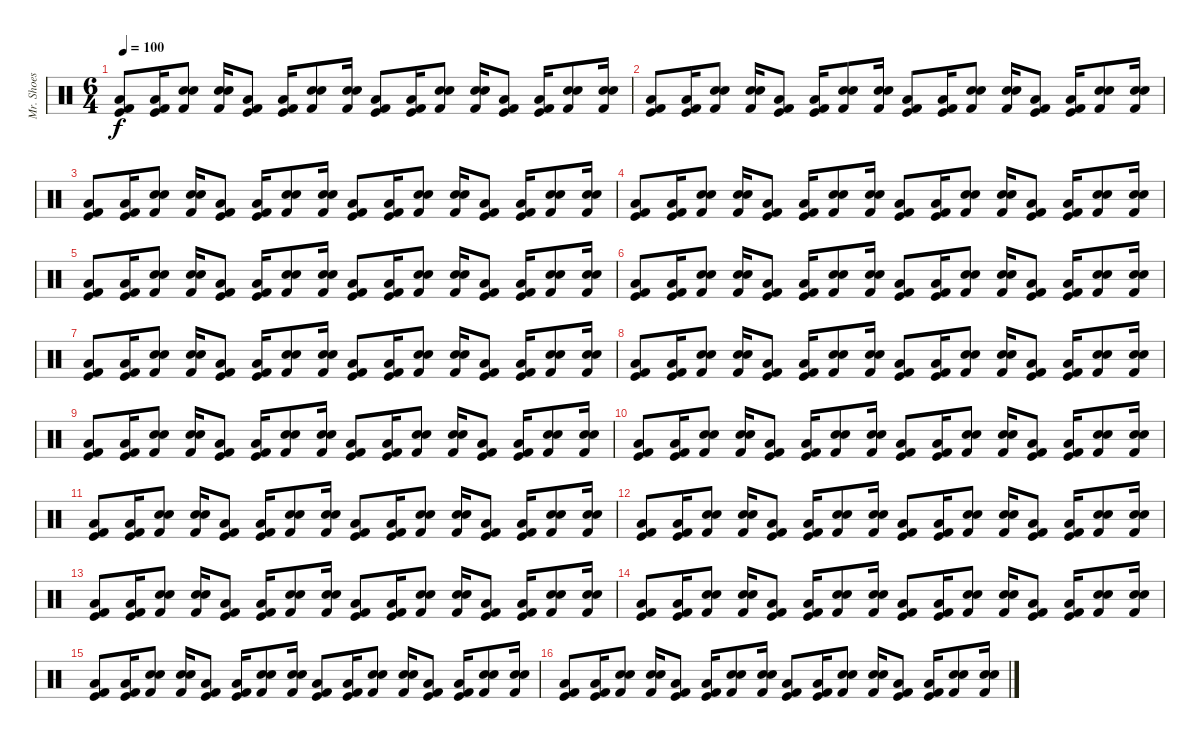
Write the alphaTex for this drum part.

\track ("Mr. Shoes" "Mr. Shoes") {instrument percussion}
\staff {score}
\articulation defaults
\ts (6 4)
\tempo 100
\clef neutral
\ks c
("Kick (hit)" "Low Tom (hit)" "Kick (hit) 2").8{dy f} ("Kick (hit)" "Low Tom (hit)" "Kick (hit) 2").16 ("Snare (hit) 2" "Kick (hit) 2" "Snare (hit) 2").8 ("Snare (hit) 2" "Kick (hit) 2" "Snare (hit) 2").16 ("Kick (hit)" "Low Tom (hit)" "Kick (hit) 2").8 ("Kick (hit)" "Low Tom (hit)" "Kick (hit) 2").16 ("Snare (hit) 2" "Kick (hit) 2" "Snare (hit) 2").8 ("Snare (hit) 2" "Kick (hit) 2" "Snare (hit) 2").16 ("Kick (hit)" "Low Tom (hit)" "Kick (hit) 2").8 ("Kick (hit)" "Low Tom (hit)" "Kick (hit) 2").16 ("Snare (hit) 2" "Kick (hit) 2" "Snare (hit) 2").8 ("Snare (hit) 2" "Kick (hit) 2" "Snare (hit) 2").16 ("Kick (hit)" "Low Tom (hit)" "Kick (hit) 2").8 ("Kick (hit)" "Low Tom (hit)" "Kick (hit) 2").16 ("Snare (hit) 2" "Kick (hit) 2" "Snare (hit) 2").8 ("Snare (hit) 2" "Kick (hit) 2" "Snare (hit) 2").16 |
("Kick (hit)" "Low Tom (hit)" "Kick (hit) 2").8 ("Kick (hit)" "Low Tom (hit)" "Kick (hit) 2").16 ("Snare (hit) 2" "Kick (hit) 2" "Snare (hit) 2").8 ("Snare (hit) 2" "Kick (hit) 2" "Snare (hit) 2").16 ("Kick (hit)" "Low Tom (hit)" "Kick (hit) 2").8 ("Kick (hit)" "Low Tom (hit)" "Kick (hit) 2").16 ("Snare (hit) 2" "Kick (hit) 2" "Snare (hit) 2").8 ("Snare (hit) 2" "Kick (hit) 2" "Snare (hit) 2").16 ("Kick (hit)" "Low Tom (hit)" "Kick (hit) 2").8 ("Kick (hit)" "Low Tom (hit)" "Kick (hit) 2").16 ("Snare (hit) 2" "Kick (hit) 2" "Snare (hit) 2").8 ("Snare (hit) 2" "Kick (hit) 2" "Snare (hit) 2").16 ("Kick (hit)" "Low Tom (hit)" "Kick (hit) 2").8 ("Kick (hit)" "Low Tom (hit)" "Kick (hit) 2").16 ("Snare (hit) 2" "Kick (hit) 2" "Snare (hit) 2").8 ("Snare (hit) 2" "Kick (hit) 2" "Snare (hit) 2").16 |
("Kick (hit)" "Low Tom (hit)" "Kick (hit) 2").8 ("Kick (hit)" "Low Tom (hit)" "Kick (hit) 2").16 ("Snare (hit) 2" "Kick (hit) 2" "Snare (hit) 2").8 ("Snare (hit) 2" "Kick (hit) 2" "Snare (hit) 2").16 ("Kick (hit)" "Low Tom (hit)" "Kick (hit) 2").8 ("Kick (hit)" "Low Tom (hit)" "Kick (hit) 2").16 ("Snare (hit) 2" "Kick (hit) 2" "Snare (hit) 2").8 ("Snare (hit) 2" "Kick (hit) 2" "Snare (hit) 2").16 ("Kick (hit)" "Low Tom (hit)" "Kick (hit) 2").8 ("Kick (hit)" "Low Tom (hit)" "Kick (hit) 2").16 ("Snare (hit) 2" "Kick (hit) 2" "Snare (hit) 2").8 ("Snare (hit) 2" "Kick (hit) 2" "Snare (hit) 2").16 ("Kick (hit)" "Low Tom (hit)" "Kick (hit) 2").8 ("Kick (hit)" "Low Tom (hit)" "Kick (hit) 2").16 ("Snare (hit) 2" "Kick (hit) 2" "Snare (hit) 2").8 ("Snare (hit) 2" "Kick (hit) 2" "Snare (hit) 2").16 |
("Kick (hit)" "Low Tom (hit)" "Kick (hit) 2").8 ("Kick (hit)" "Low Tom (hit)" "Kick (hit) 2").16 ("Snare (hit) 2" "Kick (hit) 2" "Snare (hit) 2").8 ("Snare (hit) 2" "Kick (hit) 2" "Snare (hit) 2").16 ("Kick (hit)" "Low Tom (hit)" "Kick (hit) 2").8 ("Kick (hit)" "Low Tom (hit)" "Kick (hit) 2").16 ("Snare (hit) 2" "Kick (hit) 2" "Snare (hit) 2").8 ("Snare (hit) 2" "Kick (hit) 2" "Snare (hit) 2").16 ("Kick (hit)" "Low Tom (hit)" "Kick (hit) 2").8 ("Kick (hit)" "Low Tom (hit)" "Kick (hit) 2").16 ("Snare (hit) 2" "Kick (hit) 2" "Snare (hit) 2").8 ("Snare (hit) 2" "Kick (hit) 2" "Snare (hit) 2").16 ("Kick (hit)" "Low Tom (hit)" "Kick (hit) 2").8 ("Kick (hit)" "Low Tom (hit)" "Kick (hit) 2").16 ("Snare (hit) 2" "Kick (hit) 2" "Snare (hit) 2").8 ("Snare (hit) 2" "Kick (hit) 2" "Snare (hit) 2").16 |
("Kick (hit)" "Low Tom (hit)" "Kick (hit) 2").8 ("Kick (hit)" "Low Tom (hit)" "Kick (hit) 2").16 ("Snare (hit) 2" "Kick (hit) 2" "Snare (hit) 2").8 ("Snare (hit) 2" "Kick (hit) 2" "Snare (hit) 2").16 ("Kick (hit)" "Low Tom (hit)" "Kick (hit) 2").8 ("Kick (hit)" "Low Tom (hit)" "Kick (hit) 2").16 ("Snare (hit) 2" "Kick (hit) 2" "Snare (hit) 2").8 ("Snare (hit) 2" "Kick (hit) 2" "Snare (hit) 2").16 ("Kick (hit)" "Low Tom (hit)" "Kick (hit) 2").8 ("Kick (hit)" "Low Tom (hit)" "Kick (hit) 2").16 ("Snare (hit) 2" "Kick (hit) 2" "Snare (hit) 2").8 ("Snare (hit) 2" "Kick (hit) 2" "Snare (hit) 2").16 ("Kick (hit)" "Low Tom (hit)" "Kick (hit) 2").8 ("Kick (hit)" "Low Tom (hit)" "Kick (hit) 2").16 ("Snare (hit) 2" "Kick (hit) 2" "Snare (hit) 2").8 ("Snare (hit) 2" "Kick (hit) 2" "Snare (hit) 2").16 |
("Kick (hit)" "Low Tom (hit)" "Kick (hit) 2").8 ("Kick (hit)" "Low Tom (hit)" "Kick (hit) 2").16 ("Snare (hit) 2" "Kick (hit) 2" "Snare (hit) 2").8 ("Snare (hit) 2" "Kick (hit) 2" "Snare (hit) 2").16 ("Kick (hit)" "Low Tom (hit)" "Kick (hit) 2").8 ("Kick (hit)" "Low Tom (hit)" "Kick (hit) 2").16 ("Snare (hit) 2" "Kick (hit) 2" "Snare (hit) 2").8 ("Snare (hit) 2" "Kick (hit) 2" "Snare (hit) 2").16 ("Kick (hit)" "Low Tom (hit)" "Kick (hit) 2").8 ("Kick (hit)" "Low Tom (hit)" "Kick (hit) 2").16 ("Snare (hit) 2" "Kick (hit) 2" "Snare (hit) 2").8 ("Snare (hit) 2" "Kick (hit) 2" "Snare (hit) 2").16 ("Kick (hit)" "Low Tom (hit)" "Kick (hit) 2").8 ("Kick (hit)" "Low Tom (hit)" "Kick (hit) 2").16 ("Snare (hit) 2" "Kick (hit) 2" "Snare (hit) 2").8 ("Snare (hit) 2" "Kick (hit) 2" "Snare (hit) 2").16 |
("Kick (hit)" "Low Tom (hit)" "Kick (hit) 2").8 ("Kick (hit)" "Low Tom (hit)" "Kick (hit) 2").16 ("Snare (hit) 2" "Kick (hit) 2" "Snare (hit) 2").8 ("Snare (hit) 2" "Kick (hit) 2" "Snare (hit) 2").16 ("Kick (hit)" "Low Tom (hit)" "Kick (hit) 2").8 ("Kick (hit)" "Low Tom (hit)" "Kick (hit) 2").16 ("Snare (hit) 2" "Kick (hit) 2" "Snare (hit) 2").8 ("Snare (hit) 2" "Kick (hit) 2" "Snare (hit) 2").16 ("Kick (hit)" "Low Tom (hit)" "Kick (hit) 2").8 ("Kick (hit)" "Low Tom (hit)" "Kick (hit) 2").16 ("Snare (hit) 2" "Kick (hit) 2" "Snare (hit) 2").8 ("Snare (hit) 2" "Kick (hit) 2" "Snare (hit) 2").16 ("Kick (hit)" "Low Tom (hit)" "Kick (hit) 2").8 ("Kick (hit)" "Low Tom (hit)" "Kick (hit) 2").16 ("Snare (hit) 2" "Kick (hit) 2" "Snare (hit) 2").8 ("Snare (hit) 2" "Kick (hit) 2" "Snare (hit) 2").16 |
("Kick (hit)" "Low Tom (hit)" "Kick (hit) 2").8 ("Kick (hit)" "Low Tom (hit)" "Kick (hit) 2").16 ("Snare (hit) 2" "Kick (hit) 2" "Snare (hit) 2").8 ("Snare (hit) 2" "Kick (hit) 2" "Snare (hit) 2").16 ("Kick (hit)" "Low Tom (hit)" "Kick (hit) 2").8 ("Kick (hit)" "Low Tom (hit)" "Kick (hit) 2").16 ("Snare (hit) 2" "Kick (hit) 2" "Snare (hit) 2").8 ("Snare (hit) 2" "Kick (hit) 2" "Snare (hit) 2").16 ("Kick (hit)" "Low Tom (hit)" "Kick (hit) 2").8 ("Kick (hit)" "Low Tom (hit)" "Kick (hit) 2").16 ("Snare (hit) 2" "Kick (hit) 2" "Snare (hit) 2").8 ("Snare (hit) 2" "Kick (hit) 2" "Snare (hit) 2").16 ("Kick (hit)" "Low Tom (hit)" "Kick (hit) 2").8 ("Kick (hit)" "Low Tom (hit)" "Kick (hit) 2").16 ("Snare (hit) 2" "Kick (hit) 2" "Snare (hit) 2").8 ("Snare (hit) 2" "Kick (hit) 2" "Snare (hit) 2").16 |
("Kick (hit)" "Low Tom (hit)" "Kick (hit) 2").8 ("Kick (hit)" "Low Tom (hit)" "Kick (hit) 2").16 ("Snare (hit) 2" "Kick (hit) 2" "Snare (hit) 2").8 ("Snare (hit) 2" "Kick (hit) 2" "Snare (hit) 2").16 ("Kick (hit)" "Low Tom (hit)" "Kick (hit) 2").8 ("Kick (hit)" "Low Tom (hit)" "Kick (hit) 2").16 ("Snare (hit) 2" "Kick (hit) 2" "Snare (hit) 2").8 ("Snare (hit) 2" "Kick (hit) 2" "Snare (hit) 2").16 ("Kick (hit)" "Low Tom (hit)" "Kick (hit) 2").8 ("Kick (hit)" "Low Tom (hit)" "Kick (hit) 2").16 ("Snare (hit) 2" "Kick (hit) 2" "Snare (hit) 2").8 ("Snare (hit) 2" "Kick (hit) 2" "Snare (hit) 2").16 ("Kick (hit)" "Low Tom (hit)" "Kick (hit) 2").8 ("Kick (hit)" "Low Tom (hit)" "Kick (hit) 2").16 ("Snare (hit) 2" "Kick (hit) 2" "Snare (hit) 2").8 ("Snare (hit) 2" "Kick (hit) 2" "Snare (hit) 2").16 |
("Kick (hit)" "Low Tom (hit)" "Kick (hit) 2").8 ("Kick (hit)" "Low Tom (hit)" "Kick (hit) 2").16 ("Snare (hit) 2" "Kick (hit) 2" "Snare (hit) 2").8 ("Snare (hit) 2" "Kick (hit) 2" "Snare (hit) 2").16 ("Kick (hit)" "Low Tom (hit)" "Kick (hit) 2").8 ("Kick (hit)" "Low Tom (hit)" "Kick (hit) 2").16 ("Snare (hit) 2" "Kick (hit) 2" "Snare (hit) 2").8 ("Snare (hit) 2" "Kick (hit) 2" "Snare (hit) 2").16 ("Kick (hit)" "Low Tom (hit)" "Kick (hit) 2").8 ("Kick (hit)" "Low Tom (hit)" "Kick (hit) 2").16 ("Snare (hit) 2" "Kick (hit) 2" "Snare (hit) 2").8 ("Snare (hit) 2" "Kick (hit) 2" "Snare (hit) 2").16 ("Kick (hit)" "Low Tom (hit)" "Kick (hit) 2").8 ("Kick (hit)" "Low Tom (hit)" "Kick (hit) 2").16 ("Snare (hit) 2" "Kick (hit) 2" "Snare (hit) 2").8 ("Snare (hit) 2" "Kick (hit) 2" "Snare (hit) 2").16 |
("Kick (hit)" "Low Tom (hit)" "Kick (hit) 2").8 ("Kick (hit)" "Low Tom (hit)" "Kick (hit) 2").16 ("Snare (hit) 2" "Kick (hit) 2" "Snare (hit) 2").8 ("Snare (hit) 2" "Kick (hit) 2" "Snare (hit) 2").16 ("Kick (hit)" "Low Tom (hit)" "Kick (hit) 2").8 ("Kick (hit)" "Low Tom (hit)" "Kick (hit) 2").16 ("Snare (hit) 2" "Kick (hit) 2" "Snare (hit) 2").8 ("Snare (hit) 2" "Kick (hit) 2" "Snare (hit) 2").16 ("Kick (hit)" "Low Tom (hit)" "Kick (hit) 2").8 ("Kick (hit)" "Low Tom (hit)" "Kick (hit) 2").16 ("Snare (hit) 2" "Kick (hit) 2" "Snare (hit) 2").8 ("Snare (hit) 2" "Kick (hit) 2" "Snare (hit) 2").16 ("Kick (hit)" "Low Tom (hit)" "Kick (hit) 2").8 ("Kick (hit)" "Low Tom (hit)" "Kick (hit) 2").16 ("Snare (hit) 2" "Kick (hit) 2" "Snare (hit) 2").8 ("Snare (hit) 2" "Kick (hit) 2" "Snare (hit) 2").16 |
("Kick (hit)" "Low Tom (hit)" "Kick (hit) 2").8 ("Kick (hit)" "Low Tom (hit)" "Kick (hit) 2").16 ("Snare (hit) 2" "Kick (hit) 2" "Snare (hit) 2").8 ("Snare (hit) 2" "Kick (hit) 2" "Snare (hit) 2").16 ("Kick (hit)" "Low Tom (hit)" "Kick (hit) 2").8 ("Kick (hit)" "Low Tom (hit)" "Kick (hit) 2").16 ("Snare (hit) 2" "Kick (hit) 2" "Snare (hit) 2").8 ("Snare (hit) 2" "Kick (hit) 2" "Snare (hit) 2").16 ("Kick (hit)" "Low Tom (hit)" "Kick (hit) 2").8 ("Kick (hit)" "Low Tom (hit)" "Kick (hit) 2").16 ("Snare (hit) 2" "Kick (hit) 2" "Snare (hit) 2").8 ("Snare (hit) 2" "Kick (hit) 2" "Snare (hit) 2").16 ("Kick (hit)" "Low Tom (hit)" "Kick (hit) 2").8 ("Kick (hit)" "Low Tom (hit)" "Kick (hit) 2").16 ("Snare (hit) 2" "Kick (hit) 2" "Snare (hit) 2").8 ("Snare (hit) 2" "Kick (hit) 2" "Snare (hit) 2").16 |
("Kick (hit)" "Low Tom (hit)" "Kick (hit) 2").8 ("Kick (hit)" "Low Tom (hit)" "Kick (hit) 2").16 ("Snare (hit) 2" "Kick (hit) 2" "Snare (hit) 2").8 ("Snare (hit) 2" "Kick (hit) 2" "Snare (hit) 2").16 ("Kick (hit)" "Low Tom (hit)" "Kick (hit) 2").8 ("Kick (hit)" "Low Tom (hit)" "Kick (hit) 2").16 ("Snare (hit) 2" "Kick (hit) 2" "Snare (hit) 2").8 ("Snare (hit) 2" "Kick (hit) 2" "Snare (hit) 2").16 ("Kick (hit)" "Low Tom (hit)" "Kick (hit) 2").8 ("Kick (hit)" "Low Tom (hit)" "Kick (hit) 2").16 ("Snare (hit) 2" "Kick (hit) 2" "Snare (hit) 2").8 ("Snare (hit) 2" "Kick (hit) 2" "Snare (hit) 2").16 ("Kick (hit)" "Low Tom (hit)" "Kick (hit) 2").8 ("Kick (hit)" "Low Tom (hit)" "Kick (hit) 2").16 ("Snare (hit) 2" "Kick (hit) 2" "Snare (hit) 2").8 ("Snare (hit) 2" "Kick (hit) 2" "Snare (hit) 2").16 |
("Kick (hit)" "Low Tom (hit)" "Kick (hit) 2").8 ("Kick (hit)" "Low Tom (hit)" "Kick (hit) 2").16 ("Snare (hit) 2" "Kick (hit) 2" "Snare (hit) 2").8 ("Snare (hit) 2" "Kick (hit) 2" "Snare (hit) 2").16 ("Kick (hit)" "Low Tom (hit)" "Kick (hit) 2").8 ("Kick (hit)" "Low Tom (hit)" "Kick (hit) 2").16 ("Snare (hit) 2" "Kick (hit) 2" "Snare (hit) 2").8 ("Snare (hit) 2" "Kick (hit) 2" "Snare (hit) 2").16 ("Kick (hit)" "Low Tom (hit)" "Kick (hit) 2").8 ("Kick (hit)" "Low Tom (hit)" "Kick (hit) 2").16 ("Snare (hit) 2" "Kick (hit) 2" "Snare (hit) 2").8 ("Snare (hit) 2" "Kick (hit) 2" "Snare (hit) 2").16 ("Kick (hit)" "Low Tom (hit)" "Kick (hit) 2").8 ("Kick (hit)" "Low Tom (hit)" "Kick (hit) 2").16 ("Snare (hit) 2" "Kick (hit) 2" "Snare (hit) 2").8 ("Snare (hit) 2" "Kick (hit) 2" "Snare (hit) 2").16 |
("Kick (hit)" "Low Tom (hit)" "Kick (hit) 2").8 ("Kick (hit)" "Low Tom (hit)" "Kick (hit) 2").16 ("Snare (hit) 2" "Kick (hit) 2" "Snare (hit) 2").8 ("Snare (hit) 2" "Kick (hit) 2" "Snare (hit) 2").16 ("Kick (hit)" "Low Tom (hit)" "Kick (hit) 2").8 ("Kick (hit)" "Low Tom (hit)" "Kick (hit) 2").16 ("Snare (hit) 2" "Kick (hit) 2" "Snare (hit) 2").8 ("Snare (hit) 2" "Kick (hit) 2" "Snare (hit) 2").16 ("Kick (hit)" "Low Tom (hit)" "Kick (hit) 2").8 ("Kick (hit)" "Low Tom (hit)" "Kick (hit) 2").16 ("Snare (hit) 2" "Kick (hit) 2" "Snare (hit) 2").8 ("Snare (hit) 2" "Kick (hit) 2" "Snare (hit) 2").16 ("Kick (hit)" "Low Tom (hit)" "Kick (hit) 2").8 ("Kick (hit)" "Low Tom (hit)" "Kick (hit) 2").16 ("Snare (hit) 2" "Kick (hit) 2" "Snare (hit) 2").8 ("Snare (hit) 2" "Kick (hit) 2" "Snare (hit) 2").16 |
("Kick (hit)" "Low Tom (hit)" "Kick (hit) 2").8 ("Kick (hit)" "Low Tom (hit)" "Kick (hit) 2").16 ("Snare (hit) 2" "Kick (hit) 2" "Snare (hit) 2").8 ("Snare (hit) 2" "Kick (hit) 2" "Snare (hit) 2").16 ("Kick (hit)" "Low Tom (hit)" "Kick (hit) 2").8 ("Kick (hit)" "Low Tom (hit)" "Kick (hit) 2").16 ("Snare (hit) 2" "Kick (hit) 2" "Snare (hit) 2").8 ("Snare (hit) 2" "Kick (hit) 2" "Snare (hit) 2").16 ("Kick (hit)" "Low Tom (hit)" "Kick (hit) 2").8 ("Kick (hit)" "Low Tom (hit)" "Kick (hit) 2").16 ("Snare (hit) 2" "Kick (hit) 2" "Snare (hit) 2").8 ("Snare (hit) 2" "Kick (hit) 2" "Snare (hit) 2").16 ("Kick (hit)" "Low Tom (hit)" "Kick (hit) 2").8 ("Kick (hit)" "Low Tom (hit)" "Kick (hit) 2").16 ("Snare (hit) 2" "Kick (hit) 2" "Snare (hit) 2").8 ("Snare (hit) 2" "Kick (hit) 2" "Snare (hit) 2").16
